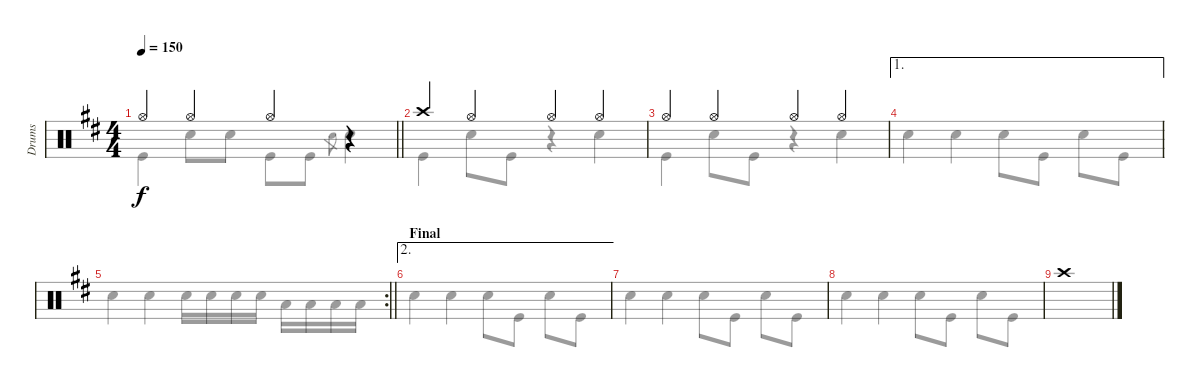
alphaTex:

\track ("Drums" "Drums") {instrument percussion}
\staff {score}
\articulation defaults
\voice
\ts (4 4)
\tempo 150
\clef neutral
\barLineRight lightlight
\ks bminor "Hi-Hat (open)".4{dy f} "Hi-Hat (open)".4 "Hi-Hat (open)".4
r.4 |
"Crash high (hit)".4 "Hi-Hat (open)".4 "Hi-Hat (open)".4 "Hi-Hat (open)".4 |
"Hi-Hat (open)".4 "Hi-Hat (open)".4 "Hi-Hat (open)".4 "Hi-Hat (open)".4 |
\ae 1
|
\rc 2
\barLineRight lightlight
|
\ae 2
\section ("" "Final")
|
|
|
"Crash high (hit)".1
\voice
\clef neutral
\ottava regular
\simile none
\barLineRight lightlight
\ks bminor "Kick (hit)".4{dy f} "Snare (hit) 2".8 "Snare (hit) 2".8 "Kick (hit)".8 "Kick (hit)".8 "Snare (hit) 2".8{gr} "Snare (hit) 2".4
|
"Kick (hit)".4 "Snare (hit) 2".8 "Kick (hit)".8 r.4 "Snare (hit) 2".4 |
"Kick (hit)".4 "Snare (hit) 2".8 "Kick (hit)".8 r.4 "Snare (hit) 2".4 |
"Snare (hit) 2".4 "Snare (hit) 2".4 "Snare (hit) 2".8 "Kick (hit)".8 "Snare (hit) 2".8 "Kick (hit)".8 |
\barLineRight lightlight "Snare (hit) 2".4 "Snare (hit) 2".4 "Snare (hit) 2".16 "Snare (hit) 2".16 "Snare (hit) 2".16 "Snare (hit) 2".16 "Low Tom (hit)".16 "Low Tom (hit)".16 "Low Tom (hit)".16 "Low Tom (hit)".16
|
"Snare (hit) 2".4 "Snare (hit) 2".4 "Snare (hit) 2".8 "Kick (hit)".8 "Snare (hit) 2".8 "Kick (hit)".8 |
"Snare (hit) 2".4 "Snare (hit) 2".4 "Snare (hit) 2".8 "Kick (hit)".8 "Snare (hit) 2".8 "Kick (hit)".8 |
"Snare (hit) 2".4 "Snare (hit) 2".4 "Snare (hit) 2".8 "Kick (hit)".8 "Snare (hit) 2".8 "Kick (hit)".8 |
